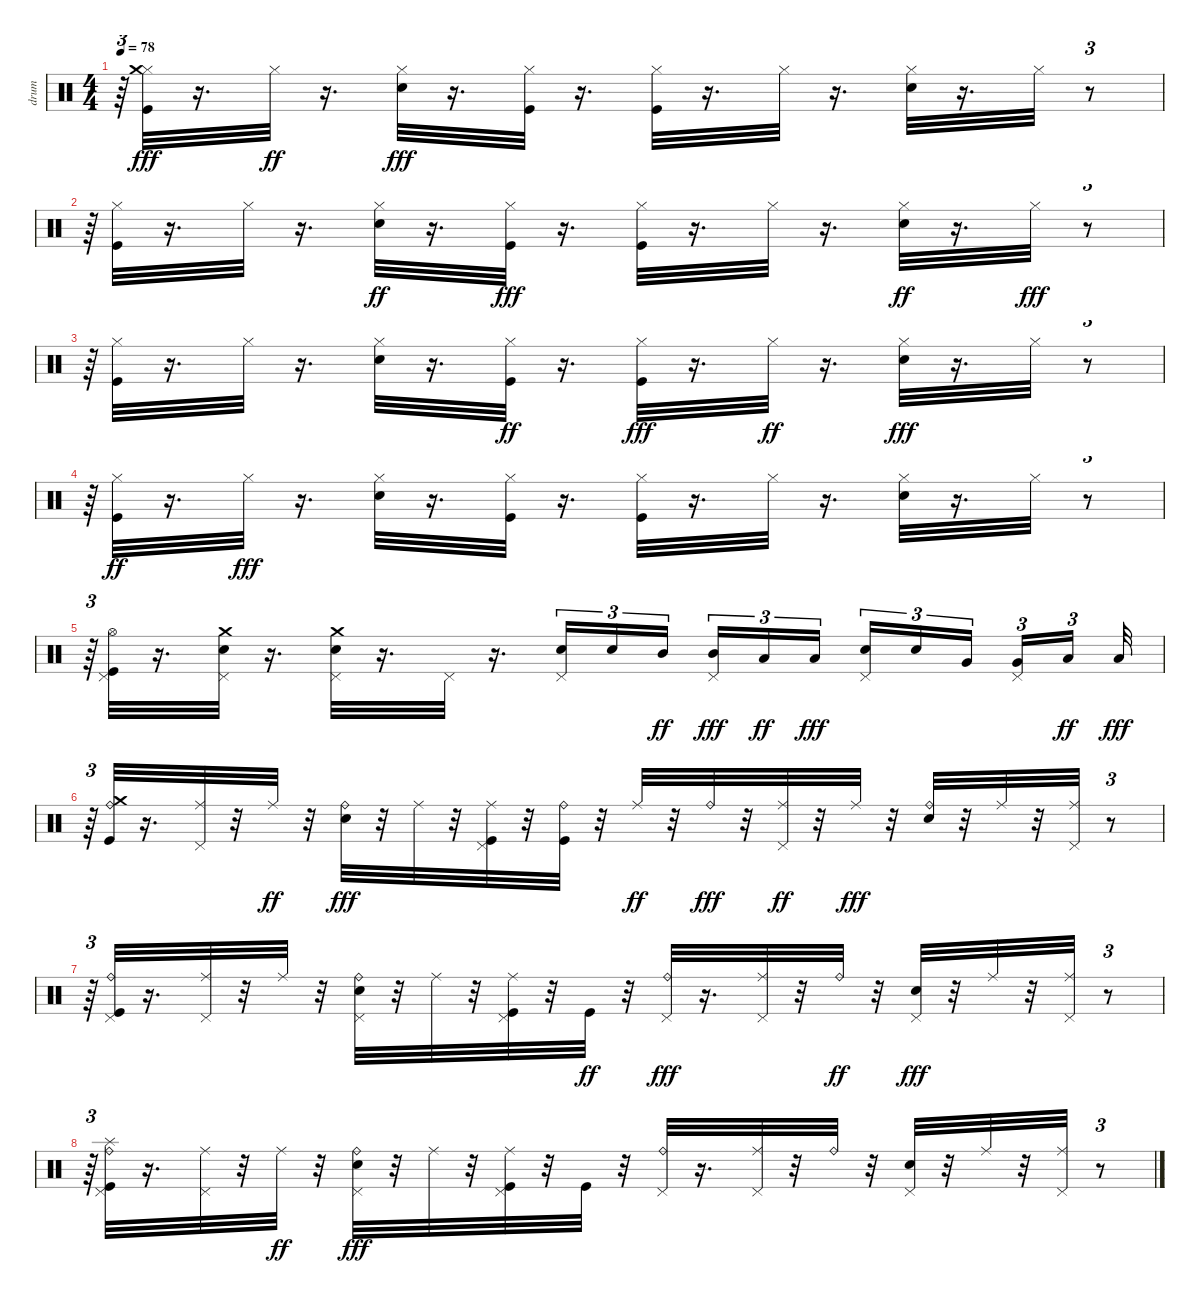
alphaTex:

\track ("drum" "drum") {instrument percussion}
\staff {score}
\articulation defaults
\ts (4 4)
\tempo 78
\clef neutral
\ks c
r.64{tu (3 2) dy ff} ("Kick (hit)" "Hi-Hat (closed)" "Crash medium (hit)").32{dy fff} r.16{d} "Hi-Hat (closed)".32{dy ff} r.16{d} ("Electric Snare (hit)" "Hi-Hat (closed)").32{dy fff} r.16{d} ("Kick (hit)" "Hi-Hat (closed)").32 r.16{d} ("Kick (hit)" "Hi-Hat (closed)").32 r.16{d} "Hi-Hat (closed)".32 r.16{d} ("Electric Snare (hit)" "Hi-Hat (closed)").32 r.16{d} "Hi-Hat (closed)".32 r.8{tu (3 2)} |
r.64{tu (3 2)} ("Kick (hit)" "Hi-Hat (closed)").32 r.16{d} "Hi-Hat (closed)".32 r.16{d} ("Electric Snare (hit)" "Hi-Hat (closed)").32{dy ff} r.16{d} ("Kick (hit)" "Hi-Hat (closed)").32{dy fff} r.16{d} ("Kick (hit)" "Hi-Hat (closed)").32 r.16{d} "Hi-Hat (closed)".32 r.16{d} ("Electric Snare (hit)" "Hi-Hat (closed)").32{dy ff} r.16{d} "Hi-Hat (closed)".32{dy fff} r.8{tu (3 2)} |
r.64{tu (3 2)} ("Kick (hit)" "Hi-Hat (closed)").32 r.16{d} "Hi-Hat (closed)".32 r.16{d} ("Electric Snare (hit)" "Hi-Hat (closed)").32 r.16{d} ("Kick (hit)" "Hi-Hat (closed)").32{dy ff} r.16{d} ("Kick (hit)" "Hi-Hat (closed)").32{dy fff} r.16{d} "Hi-Hat (closed)".32{dy ff} r.16{d} ("Electric Snare (hit)" "Hi-Hat (closed)").32{dy fff} r.16{d} "Hi-Hat (closed)".32 r.8{tu (3 2)} |
r.64{tu (3 2)} ("Kick (hit)" "Hi-Hat (closed)").32{dy ff} r.16{d} "Hi-Hat (closed)".32{dy fff} r.16{d} ("Electric Snare (hit)" "Hi-Hat (closed)").32 r.16{d} ("Kick (hit)" "Hi-Hat (closed)").32 r.16{d} ("Kick (hit)" "Hi-Hat (closed)").32 r.16{d} "Hi-Hat (closed)".32 r.16{d} ("Electric Snare (hit)" "Hi-Hat (closed)").32 r.16{d} "Hi-Hat (closed)".32 r.8{tu (3 2)} |
r.64{tu (3 2)} ("Pedal Hi-Hat (hit)" "Kick (hit)" "Hi-Hat (open)").32 r.16{d} ("Pedal Hi-Hat (hit)" "Crash medium (hit)" "Electric Snare (hit)").32 r.16{d} ("Pedal Hi-Hat (hit)" "Crash medium (hit)" "Electric Snare (hit)").32 r.16{d} "Pedal Hi-Hat (hit)".32 r.16{d} ("Pedal Hi-Hat (hit)" "Electric Snare (hit)").16{tu (3 2)} "Electric Snare (hit)".16{tu (3 2)} "Mid Tom (hit)".16{tu (3 2) dy ff} ("Mid Tom (hit)" "Pedal Hi-Hat (hit)").16{tu (3 2) dy fff} "Low Tom (hit)".16{tu (3 2) dy ff} "Low Tom (hit)".16{tu (3 2) dy fff} ("Pedal Hi-Hat (hit)" "Electric Snare (hit)").16{tu (3 2)} "Electric Snare (hit)".16{tu (3 2)} "Very Low Tom (hit)".16{tu (3 2)} ("Very Low Tom (hit)" "Pedal Hi-Hat (hit)").16{tu (3 2)} "Low Floor Tom (hit)".16{tu (3 2) dy ff} "Low Floor Tom (hit)".32{dy fff} |
r.64{tu (3 2)} ("Ride (bell)" "Kick (hit)" "Crash medium (hit)").32 r.16{d} ("Ride (middle)" "Pedal Hi-Hat (hit)").32 r.32 "Ride (middle)".32{dy ff} r.32 ("Ride (bell)" "Electric Snare (hit)").32{dy fff} r.32 "Ride (middle)".32 r.32 ("Ride (middle)" "Pedal Hi-Hat (hit)" "Kick (hit)").32 r.32 ("Ride (bell)" "Kick (hit)").32 r.32 "Ride (middle)".32{dy ff} r.32 "Ride (bell)".32{dy fff} r.32 ("Ride (middle)" "Pedal Hi-Hat (hit)").32{dy ff} r.32 "Ride (middle)".32{dy fff} r.32 ("Ride (bell)" "Electric Snare (hit)").32 r.32 "Ride (middle)".32 r.32 ("Ride (middle)" "Pedal Hi-Hat (hit)").32 r.8{tu (3 2)} |
r.64{tu (3 2)} ("Ride (bell)" "Pedal Hi-Hat (hit)" "Kick (hit)").32 r.16{d} ("Ride (middle)" "Pedal Hi-Hat (hit)").32 r.32 "Ride (middle)".32 r.32 ("Ride (bell)" "Pedal Hi-Hat (hit)" "Electric Snare (hit)").32 r.32 "Ride (middle)".32 r.32 ("Ride (middle)" "Pedal Hi-Hat (hit)" "Kick (hit)").32 r.32 "Kick (hit)".32{dy ff} r.32 ("Ride (bell)" "Pedal Hi-Hat (hit)").32{dy fff} r.16{d} ("Ride (middle)" "Pedal Hi-Hat (hit)").32 r.32 "Ride (bell)".32{dy ff} r.32 ("Pedal Hi-Hat (hit)" "Electric Snare (hit)").32{dy fff} r.32 "Ride (middle)".32 r.32 ("Ride (middle)" "Pedal Hi-Hat (hit)").32 r.8{tu (3 2)} |
r.64{tu (3 2)} ("Ride (bell)" "Pedal Hi-Hat (hit)" "Kick (hit)" "Splash (hit)").32 r.16{d} ("Ride (middle)" "Pedal Hi-Hat (hit)").32 r.32 "Ride (middle)".32{dy ff} r.32 ("Ride (bell)" "Pedal Hi-Hat (hit)" "Electric Snare (hit)").32{dy fff} r.32 "Ride (middle)".32 r.32 ("Ride (middle)" "Pedal Hi-Hat (hit)" "Kick (hit)").32 r.32 "Kick (hit)".32 r.32 ("Ride (bell)" "Pedal Hi-Hat (hit)").32 r.16{d} ("Ride (middle)" "Pedal Hi-Hat (hit)").32 r.32 "Ride (bell)".32 r.32 ("Pedal Hi-Hat (hit)" "Electric Snare (hit)").32 r.32 "Ride (middle)".32 r.32 ("Ride (middle)" "Pedal Hi-Hat (hit)").32 r.8{tu (3 2)}
